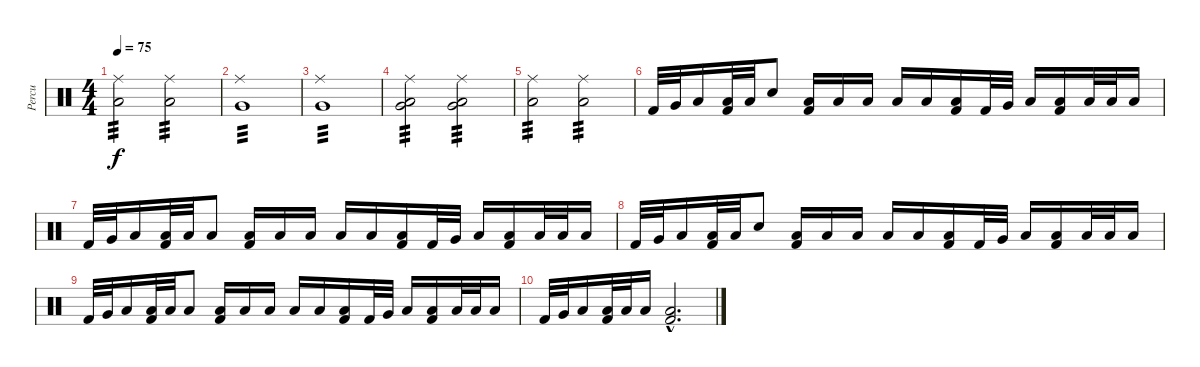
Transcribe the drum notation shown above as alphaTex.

\track ("Percu" "Percu") {instrument percussion}
\staff {score}
\articulation defaults
\ts (4 4)
\tempo 75
\clef neutral
\ks c
("Ride (middle)" "Low Floor Tom (hit)").2{tp 3 dy f} ("Ride (middle)" "Low Floor Tom (hit)").2{tp 3} |
("Ride (middle)" "Very Low Tom (hit)").1{tp 3} |
("Ride (middle)" "Very Low Tom (hit)").1{tp 3} |
("Low Floor Tom (hit)" "Ride (middle)" "Very Low Tom (hit)").2{tp 3} ("Low Floor Tom (hit)" "Ride (middle)" "Very Low Tom (hit)").2{tp 3} |
("Ride (middle)" "Low Floor Tom (hit)").2{tp 3} ("Ride (middle)" "Low Floor Tom (hit)").2{tp 3} |
"Kick (hit) 2".32 "Very Low Tom (hit)".32 "Low Floor Tom (hit)".16 ("Low Floor Tom (hit)" "Kick (hit) 2").32 "Low Floor Tom (hit)".32 "Snare (hit)".8 ("Low Floor Tom (hit)" "Kick (hit) 2").16 "Low Floor Tom (hit)".16 "Low Floor Tom (hit)".16 "Low Floor Tom (hit)".16 "Low Floor Tom (hit)".16 ("Low Floor Tom (hit)" "Kick (hit) 2").16 "Kick (hit) 2".32 "Very Low Tom (hit)".32 "Low Floor Tom (hit)".16 ("Low Floor Tom (hit)" "Kick (hit) 2").16 "Low Floor Tom (hit)".32 "Low Floor Tom (hit)".32 "Low Floor Tom (hit)".16 |
"Kick (hit) 2".32 "Very Low Tom (hit)".32 "Low Floor Tom (hit)".16 ("Low Floor Tom (hit)" "Kick (hit) 2").32 "Low Floor Tom (hit)".32 "Low Floor Tom (hit)".8 ("Low Floor Tom (hit)" "Kick (hit) 2").16 "Low Floor Tom (hit)".16 "Low Floor Tom (hit)".16 "Low Floor Tom (hit)".16 "Low Floor Tom (hit)".16 ("Low Floor Tom (hit)" "Kick (hit) 2").16 "Kick (hit) 2".32 "Very Low Tom (hit)".32 "Low Floor Tom (hit)".16 ("Low Floor Tom (hit)" "Kick (hit) 2").16 "Low Floor Tom (hit)".32 "Low Floor Tom (hit)".32 "Low Floor Tom (hit)".16 |
"Kick (hit) 2".32 "Very Low Tom (hit)".32 "Low Floor Tom (hit)".16 ("Low Floor Tom (hit)" "Kick (hit) 2").32 "Low Floor Tom (hit)".32 "Snare (hit)".8 ("Low Floor Tom (hit)" "Kick (hit) 2").16 "Low Floor Tom (hit)".16 "Low Floor Tom (hit)".16 "Low Floor Tom (hit)".16 "Low Floor Tom (hit)".16 ("Low Floor Tom (hit)" "Kick (hit) 2").16 "Kick (hit) 2".32 "Very Low Tom (hit)".32 "Low Floor Tom (hit)".16 ("Low Floor Tom (hit)" "Kick (hit) 2").16 "Low Floor Tom (hit)".32 "Low Floor Tom (hit)".32 "Low Floor Tom (hit)".16 |
"Kick (hit) 2".32 "Very Low Tom (hit)".32 "Low Floor Tom (hit)".16 ("Low Floor Tom (hit)" "Kick (hit) 2").32 "Low Floor Tom (hit)".32 "Low Floor Tom (hit)".8 ("Low Floor Tom (hit)" "Kick (hit) 2").16 "Low Floor Tom (hit)".16 "Low Floor Tom (hit)".16 "Low Floor Tom (hit)".16 "Low Floor Tom (hit)".16 ("Low Floor Tom (hit)" "Kick (hit) 2").16 "Kick (hit) 2".32 "Very Low Tom (hit)".32 "Low Floor Tom (hit)".16 ("Low Floor Tom (hit)" "Kick (hit) 2").16 "Low Floor Tom (hit)".32 "Low Floor Tom (hit)".32 "Low Floor Tom (hit)".16 |
"Kick (hit) 2".32 "Very Low Tom (hit)".32 "Low Floor Tom (hit)".16 ("Low Floor Tom (hit)" "Kick (hit) 2").32 "Low Floor Tom (hit)".32 "Low Floor Tom (hit)".16 ("Low Floor Tom (hit)"{hac} "Kick (hit) 2"{hac}).2{d}
